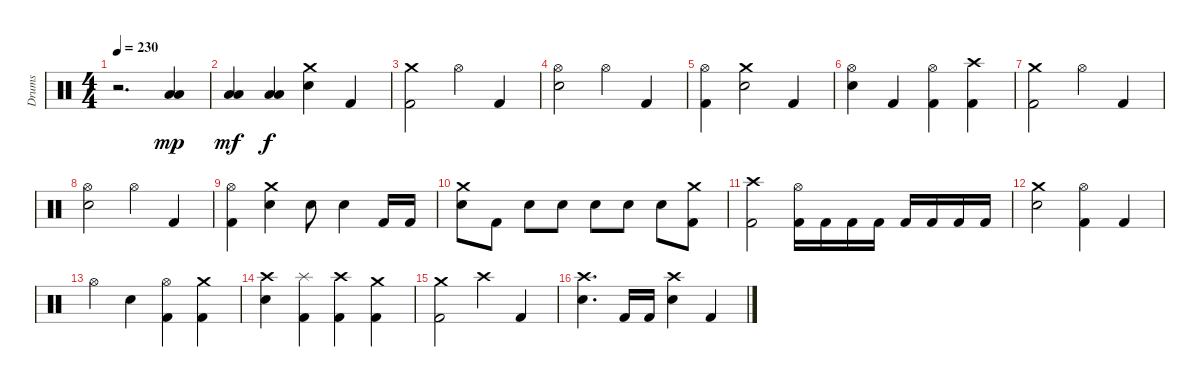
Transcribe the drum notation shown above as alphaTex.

\track ("Drums" "Drums") {instrument percussion}
\staff {score}
\articulation defaults
\ts (4 4)
\tempo 230
\clef neutral
\ks c
r.2{d dy f} ("Low Tom (hit)" "Low Floor Tom (hit)").4{dy mp} |
("Low Tom (hit)" "Low Floor Tom (hit)").4{dy mf} ("Low Tom (hit)" "Low Floor Tom (hit)").4{dy f} ("Crash medium (hit)" "Electric Snare (hit)").4 "Kick (hit) 2".4 |
("Crash medium (hit)" "Kick (hit) 2").2 "Hi-Hat (open)".4 "Kick (hit) 2".4 |
("Electric Snare (hit)" "Hi-Hat (open)").2 "Hi-Hat (open)".4 "Kick (hit) 2".4 |
("Kick (hit) 2" "Hi-Hat (open)").4 ("Electric Snare (hit)" "Crash medium (hit)").2 "Kick (hit) 2".4 |
("Hi-Hat (open)" "Electric Snare (hit)").4 "Kick (hit) 2".4 ("Hi-Hat (open)" "Kick (hit) 2").4 ("Crash high (hit)" "Kick (hit) 2").4 |
("Kick (hit) 2" "Crash medium (hit)").2 "Hi-Hat (open)".4 "Kick (hit) 2".4 |
("Electric Snare (hit)" "Hi-Hat (open)").2 "Hi-Hat (open)".4 "Kick (hit) 2".4 |
("Kick (hit) 2" "Hi-Hat (open)").4 ("Electric Snare (hit)" "Crash medium (hit)").4 "Electric Snare (hit)".8 "Electric Snare (hit)".4 "Kick (hit) 2".16 "Kick (hit) 2".16 |
("Electric Snare (hit)" "Crash medium (hit)").8 "Kick (hit) 2".8 "Electric Snare (hit)".8 "Electric Snare (hit)".8 "Electric Snare (hit)".8 "Electric Snare (hit)".8 "Electric Snare (hit)".8 ("Kick (hit) 2" "Crash medium (hit)").8 |
("Kick (hit) 2" "Crash high (hit)").2 ("Kick (hit) 2" "Hi-Hat (open)").16 "Kick (hit) 2".16 "Kick (hit) 2".16 "Kick (hit) 2".16 "Kick (hit) 2".16 "Kick (hit) 2".16 "Kick (hit) 2".16 "Kick (hit) 2".16 |
("Crash medium (hit)" "Electric Snare (hit)").2 ("Hi-Hat (open)" "Kick (hit) 2").4 "Kick (hit) 2".4 |
"Hi-Hat (open)".4 "Electric Snare (hit)".4 ("Kick (hit) 2" "Hi-Hat (open)").4 ("Kick (hit) 2" "Crash medium (hit)").4 |
("Electric Snare (hit)" "Crash high (hit)").4 ("Kick (hit) 2" "Splash (hit)").4 ("Kick (hit) 2" "Crash high (hit)").4 ("Kick (hit) 2" "Crash medium (hit)").4 |
("Kick (hit) 2" "Crash medium (hit)").2 "Crash high (hit)".4 "Kick (hit) 2".4 |
("Electric Snare (hit)" "Crash high (hit)").4{d} "Kick (hit) 2".16 "Kick (hit) 2".16 ("Electric Snare (hit)" "Crash high (hit)").4 "Kick (hit) 2".4
